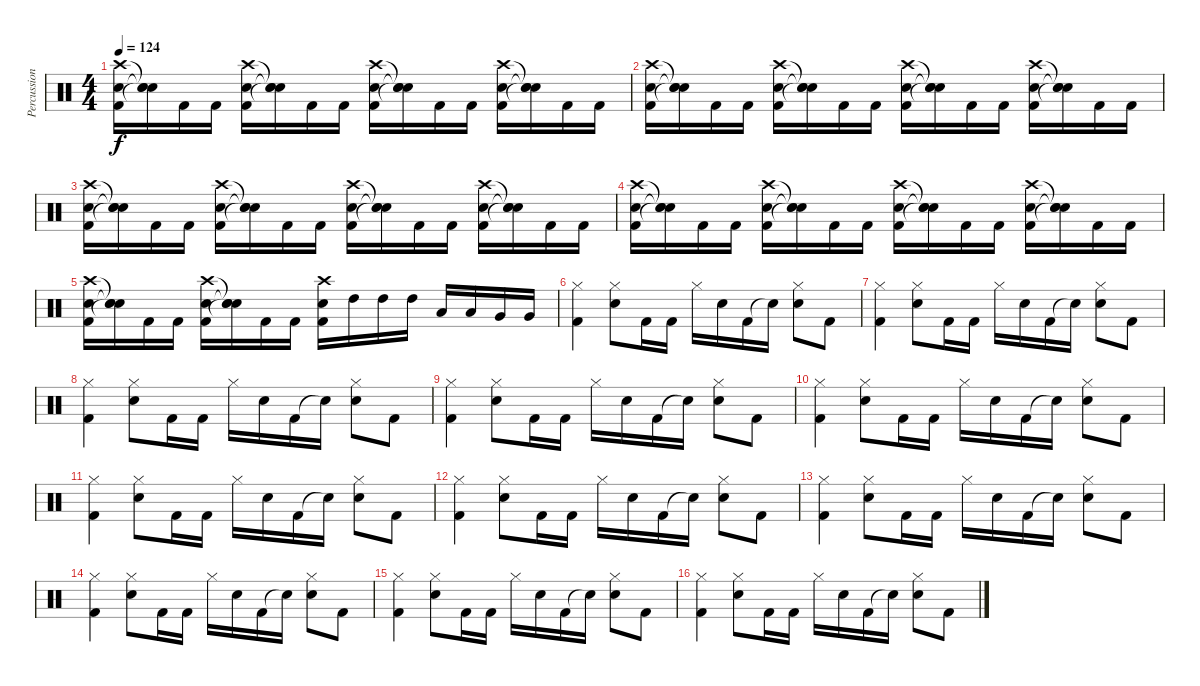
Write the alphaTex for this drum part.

\track ("Percussions" "Percussion") {instrument percussion}
\staff {score}
\articulation defaults
\ts (4 4)
\tempo 124
\clef neutral
\ks c
("Kick (hit) 2" "Electric Snare (hit)" "Crash high (hit)").16{dy f} ("Snare (hit)"{t} "Snare (hit)"{t} "Snare (hit)"{t}).16 "Kick (hit) 2".16 "Kick (hit) 2".16 ("Kick (hit) 2" "Electric Snare (hit)" "Crash high (hit)").16 ("Snare (hit)"{t} "Snare (hit)"{t} "Snare (hit)"{t}).16 "Kick (hit) 2".16 "Kick (hit) 2".16 ("Kick (hit) 2" "Electric Snare (hit)" "Crash high (hit)").16 ("Snare (hit)"{t} "Snare (hit)"{t} "Snare (hit)"{t}).16 "Kick (hit) 2".16 "Kick (hit) 2".16 ("Kick (hit) 2" "Electric Snare (hit)" "Crash high (hit)").16 ("Snare (hit)"{t} "Snare (hit)"{t} "Snare (hit)"{t}).16 "Kick (hit) 2".16 "Kick (hit) 2".16 |
("Kick (hit) 2" "Electric Snare (hit)" "Crash high (hit)").16 ("Snare (hit)"{t} "Snare (hit)"{t} "Snare (hit)"{t}).16 "Kick (hit) 2".16 "Kick (hit) 2".16 ("Kick (hit) 2" "Electric Snare (hit)" "Crash high (hit)").16 ("Snare (hit)"{t} "Snare (hit)"{t} "Snare (hit)"{t}).16 "Kick (hit) 2".16 "Kick (hit) 2".16 ("Kick (hit) 2" "Electric Snare (hit)" "Crash high (hit)").16 ("Snare (hit)"{t} "Snare (hit)"{t} "Snare (hit)"{t}).16 "Kick (hit) 2".16 "Kick (hit) 2".16 ("Kick (hit) 2" "Electric Snare (hit)" "Crash high (hit)").16 ("Snare (hit)"{t} "Snare (hit)"{t} "Snare (hit)"{t}).16 "Kick (hit) 2".16 "Kick (hit) 2".16 |
("Kick (hit) 2" "Electric Snare (hit)" "Crash high (hit)").16 ("Snare (hit)"{t} "Snare (hit)"{t} "Snare (hit)"{t}).16 "Kick (hit) 2".16 "Kick (hit) 2".16 ("Kick (hit) 2" "Electric Snare (hit)" "Crash high (hit)").16 ("Snare (hit)"{t} "Snare (hit)"{t} "Snare (hit)"{t}).16 "Kick (hit) 2".16 "Kick (hit) 2".16 ("Kick (hit) 2" "Electric Snare (hit)" "Crash high (hit)").16 ("Snare (hit)"{t} "Snare (hit)"{t} "Snare (hit)"{t}).16 "Kick (hit) 2".16 "Kick (hit) 2".16 ("Kick (hit) 2" "Electric Snare (hit)" "Crash high (hit)").16 ("Snare (hit)"{t} "Snare (hit)"{t} "Snare (hit)"{t}).16 "Kick (hit) 2".16 "Kick (hit) 2".16 |
("Kick (hit) 2" "Electric Snare (hit)" "Crash high (hit)").16 ("Snare (hit)"{t} "Snare (hit)"{t} "Snare (hit)"{t}).16 "Kick (hit) 2".16 "Kick (hit) 2".16 ("Kick (hit) 2" "Electric Snare (hit)" "Crash high (hit)").16 ("Snare (hit)"{t} "Snare (hit)"{t} "Snare (hit)"{t}).16 "Kick (hit) 2".16 "Kick (hit) 2".16 ("Kick (hit) 2" "Electric Snare (hit)" "Crash high (hit)").16 ("Snare (hit)"{t} "Snare (hit)"{t} "Snare (hit)"{t}).16 "Kick (hit) 2".16 "Kick (hit) 2".16 ("Kick (hit) 2" "Electric Snare (hit)" "Crash high (hit)").16 ("Snare (hit)"{t} "Snare (hit)"{t} "Snare (hit)"{t}).16 "Kick (hit) 2".16 "Kick (hit) 2".16 |
("Kick (hit) 2" "Electric Snare (hit)" "Crash high (hit)").16 ("Snare (hit)"{t} "Snare (hit)"{t} "Snare (hit)"{t}).16 "Kick (hit) 2".16 "Kick (hit) 2".16 ("Kick (hit) 2" "Electric Snare (hit)" "Crash high (hit)").16 ("Snare (hit)"{t} "Snare (hit)"{t} "Snare (hit)"{t}).16 "Kick (hit) 2".16 "Kick (hit) 2".16 ("Kick (hit) 2" "Electric Snare (hit)" "Crash high (hit)").16 "High Tom (hit)".16 "High Tom (hit)".16 "High Tom (hit)".16 "Low Tom (hit)".16 "Low Tom (hit)".16 "Very Low Tom (hit)".16 "Very Low Tom (hit)".16 |
("Kick (hit) 2" "Hi-Hat (closed)").4 ("Electric Snare (hit)" "Hi-Hat (closed)").8 "Kick (hit) 2".16 "Kick (hit) 2".16 "Hi-Hat (closed)".16 "Electric Snare (hit)".16 "Kick (hit) 2".16 "Snare (hit)"{t}.16 ("Electric Snare (hit)" "Hi-Hat (closed)").8 "Kick (hit) 2".8 |
("Kick (hit) 2" "Hi-Hat (closed)").4 ("Electric Snare (hit)" "Hi-Hat (closed)").8 "Kick (hit) 2".16 "Kick (hit) 2".16 "Hi-Hat (closed)".16 "Electric Snare (hit)".16 "Kick (hit) 2".16 "Snare (hit)"{t}.16 ("Electric Snare (hit)" "Hi-Hat (closed)").8 "Kick (hit) 2".8 |
("Kick (hit) 2" "Hi-Hat (closed)").4 ("Electric Snare (hit)" "Hi-Hat (closed)").8 "Kick (hit) 2".16 "Kick (hit) 2".16 "Hi-Hat (closed)".16 "Electric Snare (hit)".16 "Kick (hit) 2".16 "Snare (hit)"{t}.16 ("Electric Snare (hit)" "Hi-Hat (closed)").8 "Kick (hit) 2".8 |
("Kick (hit) 2" "Hi-Hat (closed)").4 ("Electric Snare (hit)" "Hi-Hat (closed)").8 "Kick (hit) 2".16 "Kick (hit) 2".16 "Hi-Hat (closed)".16 "Electric Snare (hit)".16 "Kick (hit) 2".16 "Snare (hit)"{t}.16 ("Electric Snare (hit)" "Hi-Hat (closed)").8 "Kick (hit) 2".8 |
("Kick (hit) 2" "Hi-Hat (closed)").4 ("Electric Snare (hit)" "Hi-Hat (closed)").8 "Kick (hit) 2".16 "Kick (hit) 2".16 "Hi-Hat (closed)".16 "Electric Snare (hit)".16 "Kick (hit) 2".16 "Snare (hit)"{t}.16 ("Electric Snare (hit)" "Hi-Hat (closed)").8 "Kick (hit) 2".8 |
("Kick (hit) 2" "Hi-Hat (closed)").4 ("Electric Snare (hit)" "Hi-Hat (closed)").8 "Kick (hit) 2".16 "Kick (hit) 2".16 "Hi-Hat (closed)".16 "Electric Snare (hit)".16 "Kick (hit) 2".16 "Snare (hit)"{t}.16 ("Electric Snare (hit)" "Hi-Hat (closed)").8 "Kick (hit) 2".8 |
("Kick (hit) 2" "Hi-Hat (closed)").4 ("Electric Snare (hit)" "Hi-Hat (closed)").8 "Kick (hit) 2".16 "Kick (hit) 2".16 "Hi-Hat (closed)".16 "Electric Snare (hit)".16 "Kick (hit) 2".16 "Snare (hit)"{t}.16 ("Electric Snare (hit)" "Hi-Hat (closed)").8 "Kick (hit) 2".8 |
("Kick (hit) 2" "Hi-Hat (closed)").4 ("Electric Snare (hit)" "Hi-Hat (closed)").8 "Kick (hit) 2".16 "Kick (hit) 2".16 "Hi-Hat (closed)".16 "Electric Snare (hit)".16 "Kick (hit) 2".16 "Snare (hit)"{t}.16 ("Electric Snare (hit)" "Hi-Hat (closed)").8 "Kick (hit) 2".8 |
("Kick (hit) 2" "Hi-Hat (closed)").4 ("Electric Snare (hit)" "Hi-Hat (closed)").8 "Kick (hit) 2".16 "Kick (hit) 2".16 "Hi-Hat (closed)".16 "Electric Snare (hit)".16 "Kick (hit) 2".16 "Snare (hit)"{t}.16 ("Electric Snare (hit)" "Hi-Hat (closed)").8 "Kick (hit) 2".8 |
("Kick (hit) 2" "Hi-Hat (closed)").4 ("Electric Snare (hit)" "Hi-Hat (closed)").8 "Kick (hit) 2".16 "Kick (hit) 2".16 "Hi-Hat (closed)".16 "Electric Snare (hit)".16 "Kick (hit) 2".16 "Snare (hit)"{t}.16 ("Electric Snare (hit)" "Hi-Hat (closed)").8 "Kick (hit) 2".8 |
("Kick (hit) 2" "Hi-Hat (closed)").4 ("Electric Snare (hit)" "Hi-Hat (closed)").8 "Kick (hit) 2".16 "Kick (hit) 2".16 "Hi-Hat (closed)".16 "Electric Snare (hit)".16 "Kick (hit) 2".16 "Snare (hit)"{t}.16 ("Electric Snare (hit)" "Hi-Hat (closed)").8 "Kick (hit) 2".8
